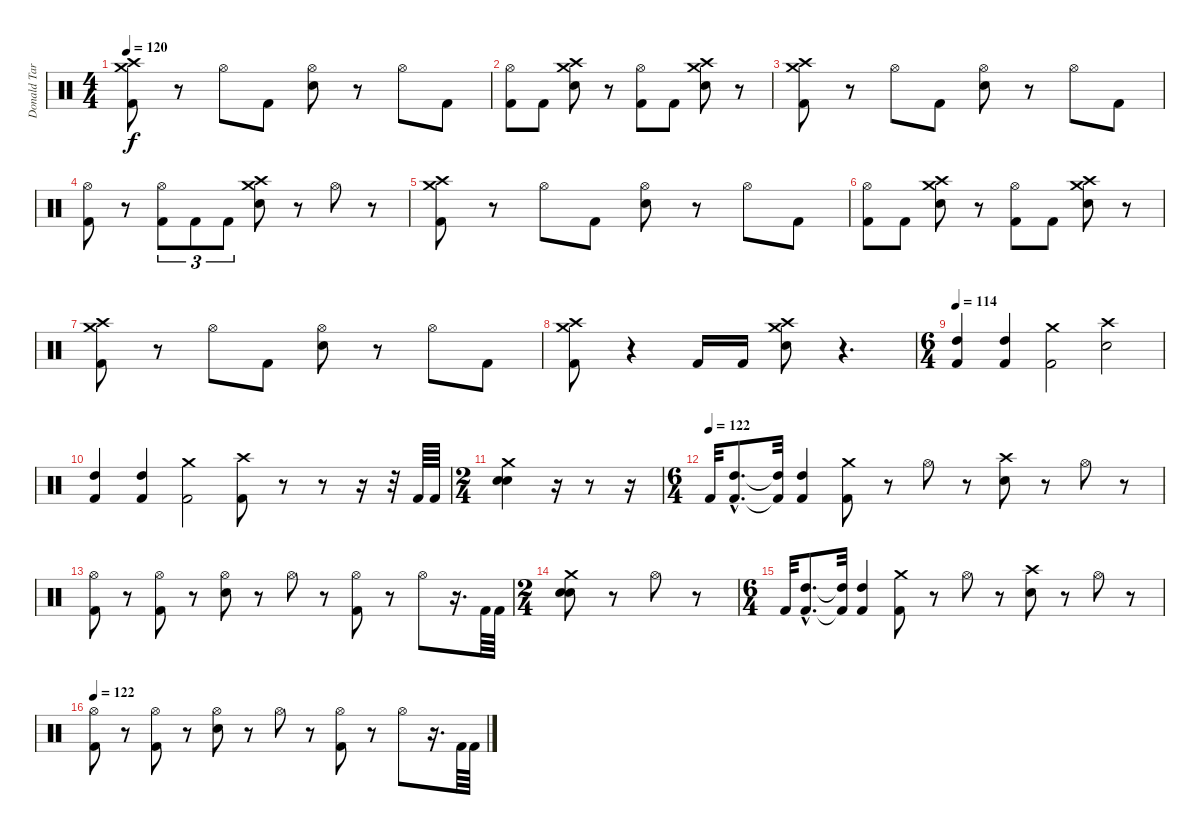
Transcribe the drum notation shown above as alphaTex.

\track ("Donald Tardy (Drums)" "Donald Tar") {instrument percussion}
\staff {score}
\articulation defaults
\ts (4 4)
\tempo 120
\clef neutral
\ks c
("Kick (hit) 2" "Crash medium (hit)" "Crash high (hit)").8{dy f} r.8 "Hi-Hat (open)".8 "Kick (hit) 2".8 ("Electric Snare (hit)" "Hi-Hat (open)").8 r.8 "Hi-Hat (open)".8 "Kick (hit) 2".8 |
("Kick (hit) 2" "Hi-Hat (open)").8 "Kick (hit) 2".8 ("Electric Snare (hit)" "Crash medium (hit)" "Crash high (hit)").8 r.8 ("Kick (hit) 2" "Hi-Hat (open)").8 "Kick (hit) 2".8 ("Electric Snare (hit)" "Crash medium (hit)" "Crash high (hit)").8 r.8 |
("Kick (hit) 2" "Crash medium (hit)" "Crash high (hit)").8 r.8 "Hi-Hat (open)".8 "Kick (hit) 2".8 ("Electric Snare (hit)" "Hi-Hat (open)").8 r.8 "Hi-Hat (open)".8 "Kick (hit) 2".8 |
("Kick (hit) 2" "Hi-Hat (open)").8 r.8 ("Kick (hit) 2" "Hi-Hat (open)").8{tu (3 2)} "Kick (hit) 2".8{tu (3 2)} "Kick (hit) 2".8{tu (3 2)} ("Electric Snare (hit)" "Crash medium (hit)" "Crash high (hit)").8 r.8 "Hi-Hat (open)".8 r.8 |
("Kick (hit) 2" "Crash medium (hit)" "Crash high (hit)").8 r.8 "Hi-Hat (open)".8 "Kick (hit) 2".8 ("Electric Snare (hit)" "Hi-Hat (open)").8 r.8 "Hi-Hat (open)".8 "Kick (hit) 2".8 |
("Kick (hit) 2" "Hi-Hat (open)").8 "Kick (hit) 2".8 ("Electric Snare (hit)" "Crash medium (hit)" "Crash high (hit)").8 r.8 ("Kick (hit) 2" "Hi-Hat (open)").8 "Kick (hit) 2".8 ("Electric Snare (hit)" "Crash medium (hit)" "Crash high (hit)").8 r.8 |
("Kick (hit) 2" "Crash medium (hit)" "Crash high (hit)").8 r.8 "Hi-Hat (open)".8 "Kick (hit) 2".8 ("Electric Snare (hit)" "Hi-Hat (open)").8 r.8 "Hi-Hat (open)".8 "Kick (hit) 2".8 |
("Kick (hit) 2" "Crash medium (hit)" "Crash high (hit)").8 r.4 "Kick (hit) 2".16 "Kick (hit) 2".16 ("Electric Snare (hit)" "Crash medium (hit)" "Crash high (hit)").8 r.4{d} |
\ts (6 4)
\tempo 114
("High Tom (hit)" "Kick (hit) 2").4 ("High Tom (hit)" "Kick (hit) 2").4 ("Kick (hit) 2" "Crash medium (hit)").2 ("Electric Snare (hit)" "Crash high (hit)").2 |
("High Tom (hit)" "Kick (hit) 2").4 ("High Tom (hit)" "Kick (hit) 2").4 ("Kick (hit) 2" "Crash medium (hit)").2 ("Kick (hit) 2" "Crash high (hit)").8 r.8 r.8 r.16 r.32 "Kick (hit) 2".64 "Kick (hit) 2".64 |
\ts (2 4)
("Electric Snare (hit)" "Crash medium (hit)" "Electric Snare (hit)").4 r.16 r.8 r.16 |
\ts (6 4)
\tempo (122)
"Kick (hit) 2".32 ("High Tom (hit)"{hac} "Kick (hit) 2"{hac}).8{d} ("High Tom (hit)"{t} "Kick (hit) 2"{t}).32 ("High Tom (hit)" "Kick (hit) 2").4 ("Kick (hit) 2" "Crash medium (hit)").8 r.8 "Hi-Hat (open)".8 r.8 ("Electric Snare (hit)" "Crash high (hit)").8 r.8 "Hi-Hat (open)".8 r.8 |
("Kick (hit) 2" "Hi-Hat (open)").8 r.8 ("Kick (hit) 2" "Hi-Hat (open)").8 r.8 ("Electric Snare (hit)" "Hi-Hat (open)").8 r.8 "Hi-Hat (open)".8 r.8 ("Kick (hit) 2" "Hi-Hat (open)").8 r.8 "Hi-Hat (open)".8 r.16{d} "Kick (hit) 2".64 "Kick (hit) 2".64 |
\ts (2 4)
("Electric Snare (hit)" "Crash medium (hit)" "Electric Snare (hit)").8 r.8 "Hi-Hat (open)".8 r.8 |
\ts (6 4)
"Kick (hit) 2".32 ("High Tom (hit)"{hac} "Kick (hit) 2"{hac}).8{d} ("High Tom (hit)"{t} "Kick (hit) 2"{t}).32 ("High Tom (hit)" "Kick (hit) 2").4 ("Kick (hit) 2" "Crash medium (hit)").8 r.8 "Hi-Hat (open)".8 r.8 ("Electric Snare (hit)" "Crash high (hit)").8 r.8 "Hi-Hat (open)".8 r.8 |
\tempo 122
("Kick (hit) 2" "Hi-Hat (open)").8 r.8 ("Kick (hit) 2" "Hi-Hat (open)").8 r.8 ("Electric Snare (hit)" "Hi-Hat (open)").8 r.8 "Hi-Hat (open)".8 r.8 ("Kick (hit) 2" "Hi-Hat (open)").8 r.8 "Hi-Hat (open)".8 r.16{d} "Kick (hit) 2".64 "Kick (hit) 2".64
